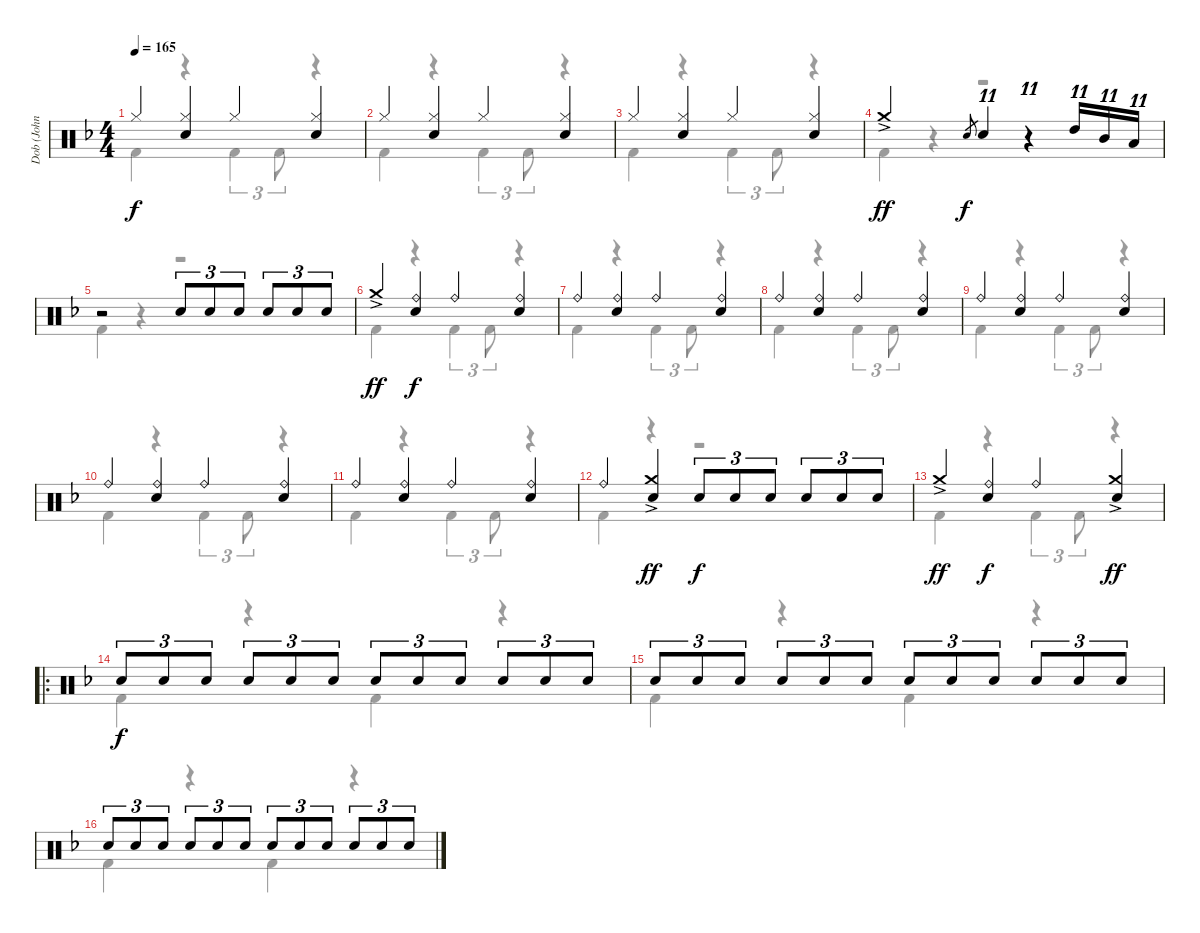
\track ("Dob (John O’Reilly)" "Dob (John ") {instrument percussion}
\staff {score}
\articulation defaults
\voice
\ts (4 4)
\tempo 165
\clef neutral
\ks f "Hi-Hat (closed)".4{dy f}
("Hi-Hat (closed)" "Electric Snare (hit)").4 "Hi-Hat (closed)".4 ("Hi-Hat (closed)" "Electric Snare (hit)").4 |
"Hi-Hat (closed)".4 ("Hi-Hat (closed)" "Electric Snare (hit)").4 "Hi-Hat (closed)".4 ("Hi-Hat (closed)" "Electric Snare (hit)").4 |
"Hi-Hat (closed)".4 ("Hi-Hat (closed)" "Electric Snare (hit)").4 "Hi-Hat (closed)".4 ("Hi-Hat (closed)" "Electric Snare (hit)").4 |
"Crash medium (hit)"{ac}.2{dy ff} "Electric Snare (hit)".8{gr dy f} "Electric Snare (hit)".4{tu (11 8)} r.4{tu (11 8)} "High Tom (hit)".16{tu (11 8)} "Mid Tom (hit)".16{tu (11 8)} "Low Tom (hit)".16{tu (11 8)} |
r.2 "Electric Snare (hit)".8{tu (3 2)} "Electric Snare (hit)".8{tu (3 2)} "Electric Snare (hit)".8{tu (3 2)} "Electric Snare (hit)".8{tu (3 2)} "Electric Snare (hit)".8{tu (3 2)} "Electric Snare (hit)".8{tu (3 2)} |
"Crash medium (hit)"{ac}.4{dy ff} ("Ride (bell)" "Electric Snare (hit)").4{dy f} "Ride (bell)".4 ("Ride (bell)" "Electric Snare (hit)").4 |
"Ride (bell)".4 ("Ride (bell)" "Electric Snare (hit)").4 "Ride (bell)".4 ("Ride (bell)" "Electric Snare (hit)").4 |
"Ride (bell)".4 ("Ride (bell)" "Electric Snare (hit)").4 "Ride (bell)".4 ("Ride (bell)" "Electric Snare (hit)").4 |
"Ride (bell)".4 ("Ride (bell)" "Electric Snare (hit)").4 "Ride (bell)".4 ("Ride (bell)" "Electric Snare (hit)").4 |
"Ride (bell)".4 ("Ride (bell)" "Electric Snare (hit)").4 "Ride (bell)".4 ("Ride (bell)" "Electric Snare (hit)").4 |
"Ride (bell)".4 ("Ride (bell)" "Electric Snare (hit)").4 "Ride (bell)".4 ("Ride (bell)" "Electric Snare (hit)").4 |
"Ride (bell)".4 ("Crash medium (hit)"{ac} "Electric Snare (hit)").4{dy ff} "Electric Snare (hit)".8{tu (3 2) dy f} "Electric Snare (hit)".8{tu (3 2)} "Electric Snare (hit)".8{tu (3 2)} "Electric Snare (hit)".8{tu (3 2)} "Electric Snare (hit)".8{tu (3 2)} "Electric Snare (hit)".8{tu (3 2)} |
"Crash medium (hit)"{ac}.4{dy ff} ("Ride (bell)" "Electric Snare (hit)").4{dy f} "Ride (bell)".4 ("Crash medium (hit)"{ac} "Electric Snare (hit)").4{dy ff} |
\ro "Electric Snare (hit)".8{tu (3 2) dy f} "Electric Snare (hit)".8{tu (3 2)} "Electric Snare (hit)".8{tu (3 2)} "Electric Snare (hit)".8{tu (3 2)} "Electric Snare (hit)".8{tu (3 2)} "Electric Snare (hit)".8{tu (3 2)} "Electric Snare (hit)".8{tu (3 2)} "Electric Snare (hit)".8{tu (3 2)} "Electric Snare (hit)".8{tu (3 2)} "Electric Snare (hit)".8{tu (3 2)} "Electric Snare (hit)".8{tu (3 2)} "Electric Snare (hit)".8{tu (3 2)}
|
"Electric Snare (hit)".8{tu (3 2)} "Electric Snare (hit)".8{tu (3 2)} "Electric Snare (hit)".8{tu (3 2)} "Electric Snare (hit)".8{tu (3 2)} "Electric Snare (hit)".8{tu (3 2)} "Electric Snare (hit)".8{tu (3 2)} "Electric Snare (hit)".8{tu (3 2)} "Electric Snare (hit)".8{tu (3 2)} "Electric Snare (hit)".8{tu (3 2)} "Electric Snare (hit)".8{tu (3 2)} "Electric Snare (hit)".8{tu (3 2)} "Electric Snare (hit)".8{tu (3 2)} |
"Electric Snare (hit)".8{tu (3 2)} "Electric Snare (hit)".8{tu (3 2)} "Electric Snare (hit)".8{tu (3 2)} "Electric Snare (hit)".8{tu (3 2)} "Electric Snare (hit)".8{tu (3 2)} "Electric Snare (hit)".8{tu (3 2)} "Electric Snare (hit)".8{tu (3 2)} "Electric Snare (hit)".8{tu (3 2)} "Electric Snare (hit)".8{tu (3 2)} "Electric Snare (hit)".8{tu (3 2)} "Electric Snare (hit)".8{tu (3 2)} "Electric Snare (hit)".8{tu (3 2)}
\voice
\clef neutral
\ottava regular
\simile none
\ks f "Kick (hit) 2".4{dy f}
r.4 "Kick (hit) 2".4{tu (3 2)} "Kick (hit) 2".8{tu (3 2)} r.4 |
"Kick (hit) 2".4 r.4 "Kick (hit) 2".4{tu (3 2)} "Kick (hit) 2".8{tu (3 2)} r.4 |
"Kick (hit) 2".4 r.4 "Kick (hit) 2".4{tu (3 2)} "Kick (hit) 2".8{tu (3 2)} r.4 |
"Kick (hit) 2".4 r.4 r.2 |
"Kick (hit) 2".4 r.4 r.2 |
"Kick (hit) 2".4 r.4 "Kick (hit) 2".4{tu (3 2)} "Kick (hit) 2".8{tu (3 2)} r.4 |
"Kick (hit) 2".4 r.4 "Kick (hit) 2".4{tu (3 2)} "Kick (hit) 2".8{tu (3 2)} r.4 |
"Kick (hit) 2".4 r.4 "Kick (hit) 2".4{tu (3 2)} "Kick (hit) 2".8{tu (3 2)} r.4 |
"Kick (hit) 2".4 r.4 "Kick (hit) 2".4{tu (3 2)} "Kick (hit) 2".8{tu (3 2)} r.4 |
"Kick (hit) 2".4 r.4 "Kick (hit) 2".4{tu (3 2)} "Kick (hit) 2".8{tu (3 2)} r.4 |
"Kick (hit) 2".4 r.4 "Kick (hit) 2".4{tu (3 2)} "Kick (hit) 2".8{tu (3 2)} r.4 |
"Kick (hit) 2".4 r.4 r.2 |
"Kick (hit) 2".4 r.4 "Kick (hit) 2".4{tu (3 2)} "Kick (hit) 2".8{tu (3 2)} r.4 |
"Kick (hit) 2".4 r.4 "Kick (hit) 2".4 r.4 |
"Kick (hit) 2".4 r.4 "Kick (hit) 2".4 r.4 |
"Kick (hit) 2".4 r.4 "Kick (hit) 2".4 r.4
